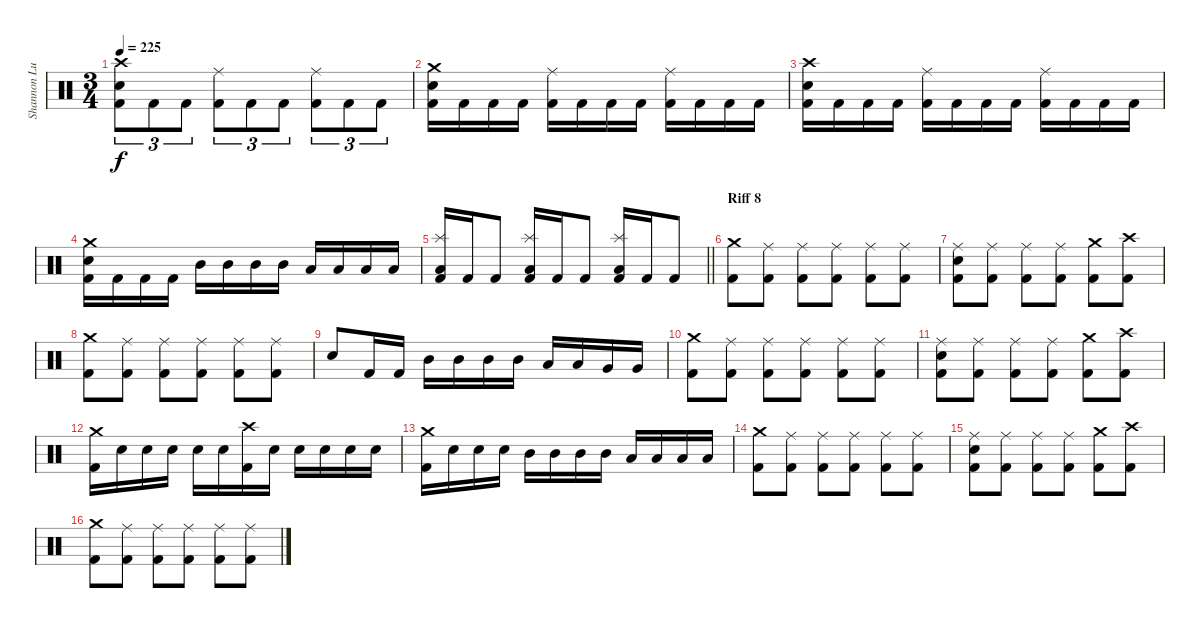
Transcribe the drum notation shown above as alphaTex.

\track ("Shannon Lucas" "Shannon Lu") {instrument percussion}
\staff {score}
\articulation defaults
\ts (3 4)
\tempo 225
\clef neutral
\ks c
("Crash high (hit)" "Electric Snare (hit)" "Kick (hit) 2").8{tu (3 2) dy f} "Kick (hit) 2".8{tu (3 2)} "Kick (hit) 2".8{tu (3 2)} ("Ride (middle)" "Kick (hit) 2").8{tu (3 2)} "Kick (hit) 2".8{tu (3 2)} "Kick (hit) 2".8{tu (3 2)} ("Ride (middle)" "Kick (hit) 2").8{tu (3 2)} "Kick (hit) 2".8{tu (3 2)} "Kick (hit) 2".8{tu (3 2)} |
("Crash medium (hit)" "Electric Snare (hit)" "Kick (hit) 2").16 "Kick (hit) 2".16 "Kick (hit) 2".16 "Kick (hit) 2".16 ("Ride (middle)" "Kick (hit) 2").16 "Kick (hit) 2".16 "Kick (hit) 2".16 "Kick (hit) 2".16 ("Ride (middle)" "Kick (hit) 2").16 "Kick (hit) 2".16 "Kick (hit) 2".16 "Kick (hit) 2".16 |
("Crash high (hit)" "Electric Snare (hit)" "Kick (hit) 2").16 "Kick (hit) 2".16 "Kick (hit) 2".16 "Kick (hit) 2".16 ("Ride (middle)" "Kick (hit) 2").16 "Kick (hit) 2".16 "Kick (hit) 2".16 "Kick (hit) 2".16 ("Ride (middle)" "Kick (hit) 2").16 "Kick (hit) 2".16 "Kick (hit) 2".16 "Kick (hit) 2".16 |
("Crash medium (hit)" "Electric Snare (hit)" "Kick (hit) 2").16 "Kick (hit) 2".16 "Kick (hit) 2".16 "Kick (hit) 2".16 "Mid Tom (hit)".16 "Mid Tom (hit)".16 "Mid Tom (hit)".16 "Mid Tom (hit)".16 "Low Tom (hit)".16 "Low Tom (hit)".16 "Low Tom (hit)".16 "Low Tom (hit)".16 |
\barLineRight lightlight
("Splash (hit)" "Low Floor Tom (hit)" "Kick (hit) 2").16 "Kick (hit) 2".16 "Kick (hit) 2".8 ("Splash (hit)" "Low Floor Tom (hit)" "Kick (hit) 2").16 "Kick (hit) 2".16 "Kick (hit) 2".8 ("Splash (hit)" "Low Floor Tom (hit)" "Kick (hit) 2").16 "Kick (hit) 2".16 "Kick (hit) 2".8 |
\section ("" "Riff 8")
("Crash medium (hit)" "Kick (hit) 2").8 ("Ride (middle)" "Kick (hit) 2").8 ("Ride (middle)" "Kick (hit) 2").8 ("Ride (middle)" "Kick (hit) 2").8 ("Ride (middle)" "Kick (hit) 2").8 ("Ride (middle)" "Kick (hit) 2").8 |
("Ride (middle)" "Electric Snare (hit)" "Kick (hit) 2").8 ("Ride (middle)" "Kick (hit) 2").8 ("Ride (middle)" "Kick (hit) 2").8 ("Ride (middle)" "Kick (hit) 2").8 ("Crash medium (hit)" "Kick (hit) 2").8 ("Crash high (hit)" "Kick (hit) 2").8 |
("Crash medium (hit)" "Kick (hit) 2").8 ("Ride (middle)" "Kick (hit) 2").8 ("Ride (middle)" "Kick (hit) 2").8 ("Ride (middle)" "Kick (hit) 2").8 ("Ride (middle)" "Kick (hit) 2").8 ("Ride (middle)" "Kick (hit) 2").8 |
"Electric Snare (hit)".8 "Kick (hit) 2".16 "Kick (hit) 2".16 "Mid Tom (hit)".16 "Mid Tom (hit)".16 "Mid Tom (hit)".16 "Mid Tom (hit)".16 "Low Tom (hit)".16 "Low Tom (hit)".16 "Very Low Tom (hit)".16 "Very Low Tom (hit)".16 |
("Crash medium (hit)" "Kick (hit) 2").8 ("Ride (middle)" "Kick (hit) 2").8 ("Ride (middle)" "Kick (hit) 2").8 ("Ride (middle)" "Kick (hit) 2").8 ("Ride (middle)" "Kick (hit) 2").8 ("Ride (middle)" "Kick (hit) 2").8 |
("Ride (middle)" "Electric Snare (hit)" "Kick (hit) 2").8 ("Ride (middle)" "Kick (hit) 2").8 ("Ride (middle)" "Kick (hit) 2").8 ("Ride (middle)" "Kick (hit) 2").8 ("Crash medium (hit)" "Kick (hit) 2").8 ("Crash high (hit)" "Kick (hit) 2").8 |
("Crash medium (hit)" "Kick (hit) 2").16 "Electric Snare (hit)".16 "Electric Snare (hit)".16 "Electric Snare (hit)".16 "Electric Snare (hit)".16 "Electric Snare (hit)".16 ("Crash high (hit)" "Kick (hit) 2").16 "Electric Snare (hit)".16 "Electric Snare (hit)".16 "Electric Snare (hit)".16 "Electric Snare (hit)".16 "Electric Snare (hit)".16 |
("Crash medium (hit)" "Kick (hit) 2").16 "Electric Snare (hit)".16 "Electric Snare (hit)".16 "Electric Snare (hit)".16 "Mid Tom (hit)".16 "Mid Tom (hit)".16 "Mid Tom (hit)".16 "Mid Tom (hit)".16 "Low Tom (hit)".16 "Low Tom (hit)".16 "Low Tom (hit)".16 "Low Tom (hit)".16 |
("Crash medium (hit)" "Kick (hit) 2").8 ("Ride (middle)" "Kick (hit) 2").8 ("Ride (middle)" "Kick (hit) 2").8 ("Ride (middle)" "Kick (hit) 2").8 ("Ride (middle)" "Kick (hit) 2").8 ("Ride (middle)" "Kick (hit) 2").8 |
("Ride (middle)" "Electric Snare (hit)" "Kick (hit) 2").8 ("Ride (middle)" "Kick (hit) 2").8 ("Ride (middle)" "Kick (hit) 2").8 ("Ride (middle)" "Kick (hit) 2").8 ("Crash medium (hit)" "Kick (hit) 2").8 ("Crash high (hit)" "Kick (hit) 2").8 |
("Crash medium (hit)" "Kick (hit) 2").8 ("Ride (middle)" "Kick (hit) 2").8 ("Ride (middle)" "Kick (hit) 2").8 ("Ride (middle)" "Kick (hit) 2").8 ("Ride (middle)" "Kick (hit) 2").8 ("Ride (middle)" "Kick (hit) 2").8
